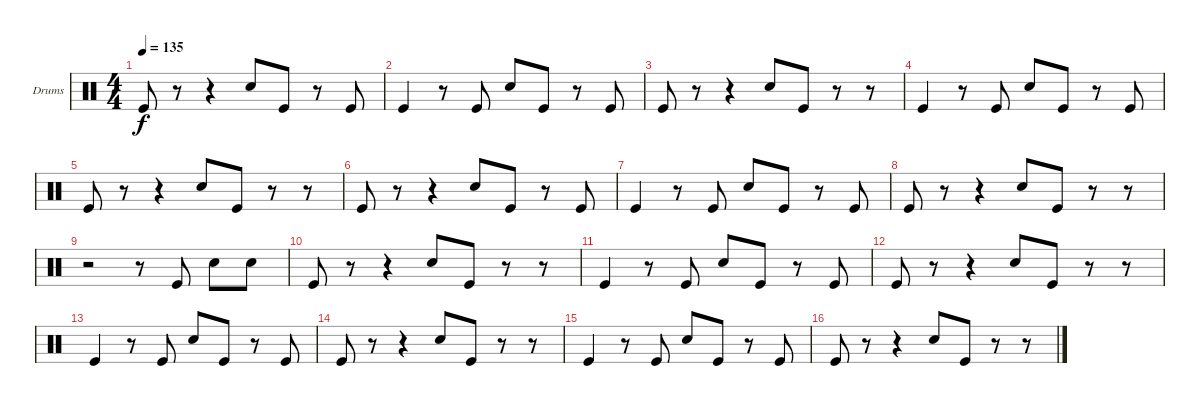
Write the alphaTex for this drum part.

\bracketExtendMode groupsimilarinstruments
\firstSystemTrackNameOrientation horizontal
\otherSystemsTrackNameOrientation horizontal
\track ("Drumkit" "Drums") {instrument percussion}
\staff {score}
\articulation defaults
\ts (4 4)
\tempo 135
\clef neutral
\ks c "Kick (hit)".8{dy f}
r.8 r.4 "Snare (hit) 2".8 "Kick (hit)".8 r.8 "Kick (hit)".8 |
"Kick (hit)".4 r.8 "Kick (hit)".8 "Snare (hit) 2".8 "Kick (hit)".8 r.8 "Kick (hit)".8 |
"Kick (hit)".8 r.8 r.4 "Snare (hit) 2".8 "Kick (hit)".8 r.8 r.8 |
"Kick (hit)".4 r.8 "Kick (hit)".8 "Snare (hit) 2".8 "Kick (hit)".8 r.8 "Kick (hit)".8 |
"Kick (hit)".8 r.8 r.4 "Snare (hit) 2".8 "Kick (hit)".8 r.8 r.8 |
"Kick (hit)".8 r.8 r.4 "Snare (hit) 2".8 "Kick (hit)".8 r.8 "Kick (hit)".8 |
"Kick (hit)".4 r.8 "Kick (hit)".8 "Snare (hit) 2".8 "Kick (hit)".8 r.8 "Kick (hit)".8 |
"Kick (hit)".8 r.8 r.4 "Snare (hit) 2".8 "Kick (hit)".8 r.8 r.8 |
r.2 r.8 "Kick (hit)".8 "Snare (hit) 2".8 "Snare (hit) 2".8 |
"Kick (hit)".8 r.8 r.4 "Snare (hit) 2".8 "Kick (hit)".8 r.8 r.8 |
"Kick (hit)".4 r.8 "Kick (hit)".8 "Snare (hit) 2".8 "Kick (hit)".8 r.8 "Kick (hit)".8 |
"Kick (hit)".8 r.8 r.4 "Snare (hit) 2".8 "Kick (hit)".8 r.8 r.8 |
"Kick (hit)".4 r.8 "Kick (hit)".8 "Snare (hit) 2".8 "Kick (hit)".8 r.8 "Kick (hit)".8 |
"Kick (hit)".8 r.8 r.4 "Snare (hit) 2".8 "Kick (hit)".8 r.8 r.8 |
"Kick (hit)".4 r.8 "Kick (hit)".8 "Snare (hit) 2".8 "Kick (hit)".8 r.8 "Kick (hit)".8 |
"Kick (hit)".8 r.8 r.4 "Snare (hit) 2".8 "Kick (hit)".8 r.8 r.8
